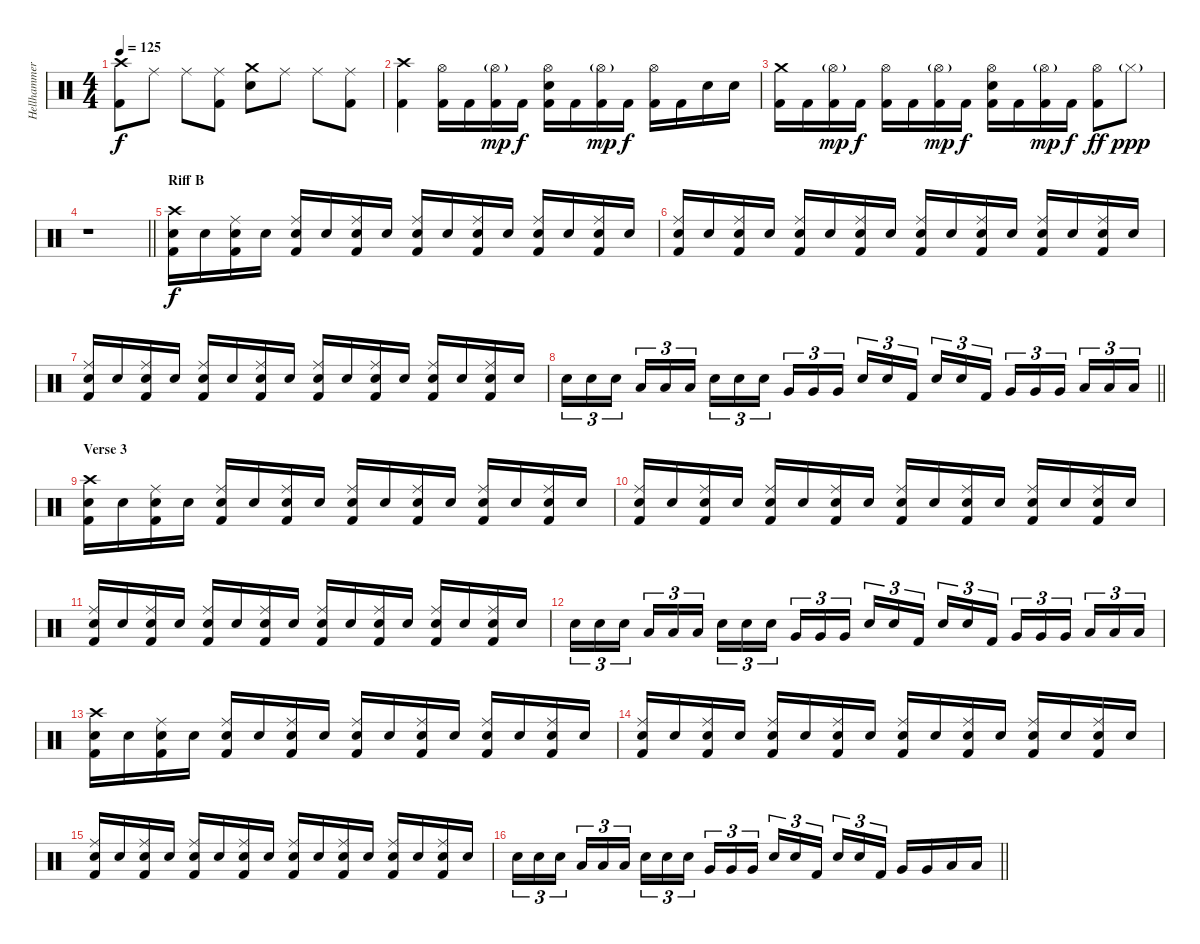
\track ("Hellhammer" "Hellhammer") {instrument percussion}
\staff {score}
\articulation defaults
\ts (4 4)
\tempo 125
\clef neutral
\ks c
("Crash high (hit)" "Kick (hit) 2").8{dy f} "Ride (middle)".8 "Ride (middle)".8 ("Ride (middle)" "Kick (hit) 2").8 ("Crash medium (hit)" "Snare (hit) 2").8 "Ride (middle)".8 "Ride (middle)".8 ("Ride (middle)" "Kick (hit) 2").8 |
("Crash high (hit)" "Kick (hit) 2").4 ("Hi-Hat (open)" "Kick (hit) 2").16 "Kick (hit) 2".16 ("Hi-Hat (open)"{g} "Kick (hit) 2").16{dy mp} "Kick (hit) 2".16{dy f} ("Hi-Hat (open)" "Snare (hit) 2" "Kick (hit) 2").16 "Kick (hit) 2".16 ("Hi-Hat (open)"{g} "Kick (hit) 2").16{dy mp} "Kick (hit) 2".16{dy f} ("Hi-Hat (open)" "Kick (hit) 2").16 "Kick (hit) 2".16 "Snare (hit) 2".16 "Snare (hit) 2".16 |
("Crash medium (hit)" "Kick (hit) 2").16 "Kick (hit) 2".16 ("Hi-Hat (open)"{g} "Kick (hit) 2").16{dy mp} "Kick (hit) 2".16{dy f} ("Hi-Hat (open)" "Kick (hit) 2").16 "Kick (hit) 2".16 ("Hi-Hat (open)"{g} "Kick (hit) 2").16{dy mp} "Kick (hit) 2".16{dy f} ("Hi-Hat (open)" "Snare (hit) 2" "Kick (hit) 2").16 "Kick (hit) 2".16 ("Hi-Hat (open)"{g} "Kick (hit) 2").16{dy mp} "Kick (hit) 2".16{dy f} ("Hi-Hat (open)" "Kick (hit) 2").8{dy ff} "Hi-Hat (closed)"{g}.8{dy ppp} |
\barLineRight lightlight
r.1 |
\section ("" "Riff B")
("Crash high (hit)" "Snare (hit) 2" "Kick (hit) 2").16{dy f} "Snare (hit) 2".16 ("Ride (middle)" "Snare (hit) 2" "Kick (hit) 2").16 "Snare (hit) 2".16 ("Ride (middle)" "Snare (hit) 2" "Kick (hit) 2").16 "Snare (hit) 2".16 ("Ride (middle)" "Snare (hit) 2" "Kick (hit) 2").16 "Snare (hit) 2".16 ("Ride (middle)" "Snare (hit) 2" "Kick (hit) 2").16 "Snare (hit) 2".16 ("Ride (middle)" "Snare (hit) 2" "Kick (hit) 2").16 "Snare (hit) 2".16 ("Ride (middle)" "Snare (hit) 2" "Kick (hit) 2").16 "Snare (hit) 2".16 ("Ride (middle)" "Snare (hit) 2" "Kick (hit) 2").16 "Snare (hit) 2".16 |
("Ride (middle)" "Snare (hit) 2" "Kick (hit) 2").16 "Snare (hit) 2".16 ("Ride (middle)" "Snare (hit) 2" "Kick (hit) 2").16 "Snare (hit) 2".16 ("Ride (middle)" "Snare (hit) 2" "Kick (hit) 2").16 "Snare (hit) 2".16 ("Ride (middle)" "Snare (hit) 2" "Kick (hit) 2").16 "Snare (hit) 2".16 ("Ride (middle)" "Snare (hit) 2" "Kick (hit) 2").16 "Snare (hit) 2".16 ("Ride (middle)" "Snare (hit) 2" "Kick (hit) 2").16 "Snare (hit) 2".16 ("Ride (middle)" "Snare (hit) 2" "Kick (hit) 2").16 "Snare (hit) 2".16 ("Ride (middle)" "Snare (hit) 2" "Kick (hit) 2").16 "Snare (hit) 2".16 |
("Ride (middle)" "Snare (hit) 2" "Kick (hit) 2").16 "Snare (hit) 2".16 ("Ride (middle)" "Snare (hit) 2" "Kick (hit) 2").16 "Snare (hit) 2".16 ("Ride (middle)" "Snare (hit) 2" "Kick (hit) 2").16 "Snare (hit) 2".16 ("Ride (middle)" "Snare (hit) 2" "Kick (hit) 2").16 "Snare (hit) 2".16 ("Ride (middle)" "Snare (hit) 2" "Kick (hit) 2").16 "Snare (hit) 2".16 ("Ride (middle)" "Snare (hit) 2" "Kick (hit) 2").16 "Snare (hit) 2".16 ("Ride (middle)" "Snare (hit) 2" "Kick (hit) 2").16 "Snare (hit) 2".16 ("Ride (middle)" "Snare (hit) 2" "Kick (hit) 2").16 "Snare (hit) 2".16 |
\barLineRight lightlight "Snare (hit) 2".16{tu (3 2)} "Snare (hit) 2".16{tu (3 2)} "Snare (hit) 2".16{tu (3 2) beam splitsecondary} "Low Tom (hit)".16{tu (3 2)} "Low Tom (hit)".16{tu (3 2)} "Low Tom (hit)".16{tu (3 2)} "Snare (hit) 2".16{tu (3 2)} "Snare (hit) 2".16{tu (3 2)} "Snare (hit) 2".16{tu (3 2) beam splitsecondary} "Very Low Tom (hit)".16{tu (3 2)} "Very Low Tom (hit)".16{tu (3 2)} "Very Low Tom (hit)".16{tu (3 2)} "Snare (hit) 2".16{tu (3 2)} "Snare (hit) 2".16{tu (3 2)} "Kick (hit) 2".16{tu (3 2) beam splitsecondary} "Snare (hit) 2".16{tu (3 2)} "Snare (hit) 2".16{tu (3 2)} "Kick (hit) 2".16{tu (3 2)} "Very Low Tom (hit)".16{tu (3 2)} "Very Low Tom (hit)".16{tu (3 2)} "Very Low Tom (hit)".16{tu (3 2) beam splitsecondary} "Low Floor Tom (hit)".16{tu (3 2)} "Low Floor Tom (hit)".16{tu (3 2)} "Low Floor Tom (hit)".16{tu (3 2)}
|
\section ("" "Verse 3")
("Crash high (hit)" "Snare (hit) 2" "Kick (hit) 2").16 "Snare (hit) 2".16 ("Ride (middle)" "Snare (hit) 2" "Kick (hit) 2").16 "Snare (hit) 2".16 ("Ride (middle)" "Snare (hit) 2" "Kick (hit) 2").16 "Snare (hit) 2".16 ("Ride (middle)" "Snare (hit) 2" "Kick (hit) 2").16 "Snare (hit) 2".16 ("Ride (middle)" "Snare (hit) 2" "Kick (hit) 2").16 "Snare (hit) 2".16 ("Ride (middle)" "Snare (hit) 2" "Kick (hit) 2").16 "Snare (hit) 2".16 ("Ride (middle)" "Snare (hit) 2" "Kick (hit) 2").16 "Snare (hit) 2".16 ("Ride (middle)" "Snare (hit) 2" "Kick (hit) 2").16 "Snare (hit) 2".16 |
("Ride (middle)" "Snare (hit) 2" "Kick (hit) 2").16 "Snare (hit) 2".16 ("Ride (middle)" "Snare (hit) 2" "Kick (hit) 2").16 "Snare (hit) 2".16 ("Ride (middle)" "Snare (hit) 2" "Kick (hit) 2").16 "Snare (hit) 2".16 ("Ride (middle)" "Snare (hit) 2" "Kick (hit) 2").16 "Snare (hit) 2".16 ("Ride (middle)" "Snare (hit) 2" "Kick (hit) 2").16 "Snare (hit) 2".16 ("Ride (middle)" "Snare (hit) 2" "Kick (hit) 2").16 "Snare (hit) 2".16 ("Ride (middle)" "Snare (hit) 2" "Kick (hit) 2").16 "Snare (hit) 2".16 ("Ride (middle)" "Snare (hit) 2" "Kick (hit) 2").16 "Snare (hit) 2".16 |
("Ride (middle)" "Snare (hit) 2" "Kick (hit) 2").16 "Snare (hit) 2".16 ("Ride (middle)" "Snare (hit) 2" "Kick (hit) 2").16 "Snare (hit) 2".16 ("Ride (middle)" "Snare (hit) 2" "Kick (hit) 2").16 "Snare (hit) 2".16 ("Ride (middle)" "Snare (hit) 2" "Kick (hit) 2").16 "Snare (hit) 2".16 ("Ride (middle)" "Snare (hit) 2" "Kick (hit) 2").16 "Snare (hit) 2".16 ("Ride (middle)" "Snare (hit) 2" "Kick (hit) 2").16 "Snare (hit) 2".16 ("Ride (middle)" "Snare (hit) 2" "Kick (hit) 2").16 "Snare (hit) 2".16 ("Ride (middle)" "Snare (hit) 2" "Kick (hit) 2").16 "Snare (hit) 2".16 |
"Snare (hit) 2".16{tu (3 2)} "Snare (hit) 2".16{tu (3 2)} "Snare (hit) 2".16{tu (3 2) beam splitsecondary} "Low Tom (hit)".16{tu (3 2)} "Low Tom (hit)".16{tu (3 2)} "Low Tom (hit)".16{tu (3 2)} "Snare (hit) 2".16{tu (3 2)} "Snare (hit) 2".16{tu (3 2)} "Snare (hit) 2".16{tu (3 2) beam splitsecondary} "Very Low Tom (hit)".16{tu (3 2)} "Very Low Tom (hit)".16{tu (3 2)} "Very Low Tom (hit)".16{tu (3 2)} "Snare (hit) 2".16{tu (3 2)} "Snare (hit) 2".16{tu (3 2)} "Kick (hit) 2".16{tu (3 2) beam splitsecondary} "Snare (hit) 2".16{tu (3 2)} "Snare (hit) 2".16{tu (3 2)} "Kick (hit) 2".16{tu (3 2)} "Very Low Tom (hit)".16{tu (3 2)} "Very Low Tom (hit)".16{tu (3 2)} "Very Low Tom (hit)".16{tu (3 2) beam splitsecondary} "Low Floor Tom (hit)".16{tu (3 2)} "Low Floor Tom (hit)".16{tu (3 2)} "Low Floor Tom (hit)".16{tu (3 2)} |
("Crash high (hit)" "Snare (hit) 2" "Kick (hit) 2").16 "Snare (hit) 2".16 ("Ride (middle)" "Snare (hit) 2" "Kick (hit) 2").16 "Snare (hit) 2".16 ("Ride (middle)" "Snare (hit) 2" "Kick (hit) 2").16 "Snare (hit) 2".16 ("Ride (middle)" "Snare (hit) 2" "Kick (hit) 2").16 "Snare (hit) 2".16 ("Ride (middle)" "Snare (hit) 2" "Kick (hit) 2").16 "Snare (hit) 2".16 ("Ride (middle)" "Snare (hit) 2" "Kick (hit) 2").16 "Snare (hit) 2".16 ("Ride (middle)" "Snare (hit) 2" "Kick (hit) 2").16 "Snare (hit) 2".16 ("Ride (middle)" "Snare (hit) 2" "Kick (hit) 2").16 "Snare (hit) 2".16 |
("Ride (middle)" "Snare (hit) 2" "Kick (hit) 2").16 "Snare (hit) 2".16 ("Ride (middle)" "Snare (hit) 2" "Kick (hit) 2").16 "Snare (hit) 2".16 ("Ride (middle)" "Snare (hit) 2" "Kick (hit) 2").16 "Snare (hit) 2".16 ("Ride (middle)" "Snare (hit) 2" "Kick (hit) 2").16 "Snare (hit) 2".16 ("Ride (middle)" "Snare (hit) 2" "Kick (hit) 2").16 "Snare (hit) 2".16 ("Ride (middle)" "Snare (hit) 2" "Kick (hit) 2").16 "Snare (hit) 2".16 ("Ride (middle)" "Snare (hit) 2" "Kick (hit) 2").16 "Snare (hit) 2".16 ("Ride (middle)" "Snare (hit) 2" "Kick (hit) 2").16 "Snare (hit) 2".16 |
("Ride (middle)" "Snare (hit) 2" "Kick (hit) 2").16 "Snare (hit) 2".16 ("Ride (middle)" "Snare (hit) 2" "Kick (hit) 2").16 "Snare (hit) 2".16 ("Ride (middle)" "Snare (hit) 2" "Kick (hit) 2").16 "Snare (hit) 2".16 ("Ride (middle)" "Snare (hit) 2" "Kick (hit) 2").16 "Snare (hit) 2".16 ("Ride (middle)" "Snare (hit) 2" "Kick (hit) 2").16 "Snare (hit) 2".16 ("Ride (middle)" "Snare (hit) 2" "Kick (hit) 2").16 "Snare (hit) 2".16 ("Ride (middle)" "Snare (hit) 2" "Kick (hit) 2").16 "Snare (hit) 2".16 ("Ride (middle)" "Snare (hit) 2" "Kick (hit) 2").16 "Snare (hit) 2".16 |
\barLineRight lightlight "Snare (hit) 2".16{tu (3 2)} "Snare (hit) 2".16{tu (3 2)} "Snare (hit) 2".16{tu (3 2) beam splitsecondary} "Low Tom (hit)".16{tu (3 2)} "Low Tom (hit)".16{tu (3 2)} "Low Tom (hit)".16{tu (3 2)} "Snare (hit) 2".16{tu (3 2)} "Snare (hit) 2".16{tu (3 2)} "Snare (hit) 2".16{tu (3 2) beam splitsecondary} "Very Low Tom (hit)".16{tu (3 2)} "Very Low Tom (hit)".16{tu (3 2)} "Very Low Tom (hit)".16{tu (3 2)} "Snare (hit) 2".16{tu (3 2)} "Snare (hit) 2".16{tu (3 2)} "Kick (hit) 2".16{tu (3 2) beam splitsecondary} "Snare (hit) 2".16{tu (3 2)} "Snare (hit) 2".16{tu (3 2)} "Kick (hit) 2".16{tu (3 2)} "Very Low Tom (hit)".16 "Very Low Tom (hit)".16 "Low Floor Tom (hit)".16 "Low Floor Tom (hit)".16
